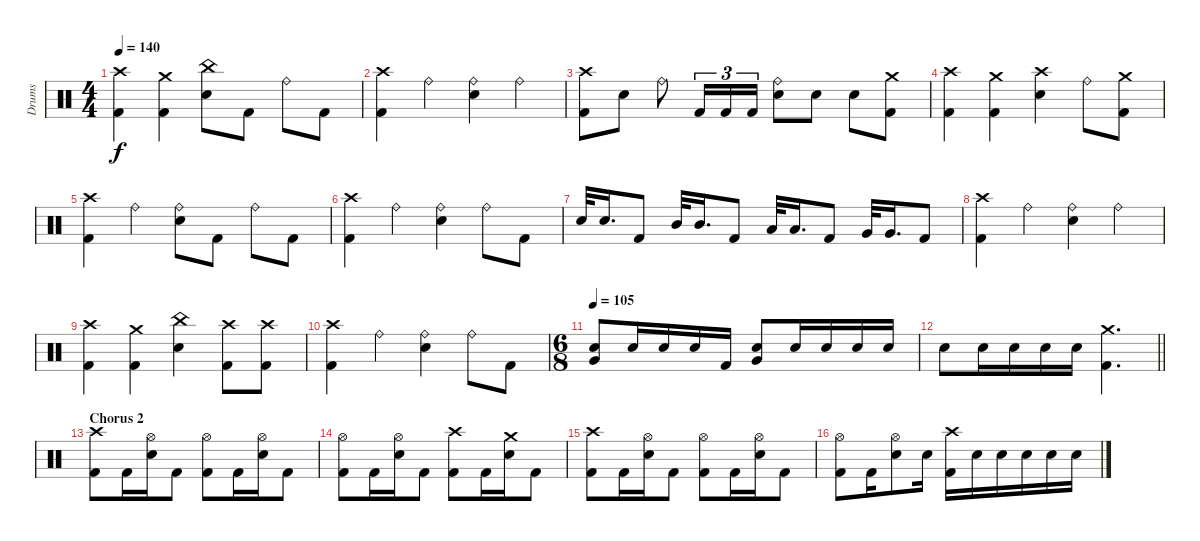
\track ("Drums" "Drums") {instrument percussion}
\staff {score}
\articulation defaults
\ts (4 4)
\tempo 140
\clef neutral
\ks c
("Crash high (hit)" "Kick (hit) 2").4{dy f} ("Crash medium (hit)" "Kick (hit) 2").4 ("China (hit)" "Electric Snare (hit)").8 "Kick (hit) 2".8 "Ride (bell)".8 "Kick (hit) 2".8 |
("Crash high (hit)" "Kick (hit) 2").4 "Ride (bell)".4 ("Ride (bell)" "Electric Snare (hit)").4 "Ride (bell)".4 |
("Crash high (hit)" "Kick (hit) 2").8 "Electric Snare (hit)".8 "Ride (bell)".8 "Kick (hit) 2".16{tu (3 2)} "Kick (hit) 2".16{tu (3 2)} "Kick (hit) 2".16{tu (3 2)} ("Ride (bell)" "Electric Snare (hit)").8 "Electric Snare (hit)".8 "Electric Snare (hit)".8 ("Crash medium (hit)" "Kick (hit) 2").8 |
("Crash high (hit)" "Kick (hit) 2").4 ("Crash medium (hit)" "Kick (hit) 2").4 ("Crash high (hit)" "Electric Snare (hit)").4 "Ride (bell)".8 ("Crash medium (hit)" "Kick (hit) 2").8 |
("Crash high (hit)" "Kick (hit) 2").4 "Ride (bell)".4 ("Ride (bell)" "Electric Snare (hit)").8 "Kick (hit) 2".8 "Ride (bell)".8 "Kick (hit) 2".8 |
("Crash high (hit)" "Kick (hit) 2").4 "Ride (bell)".4 ("Ride (bell)" "Electric Snare (hit)").4 "Ride (bell)".8 "Kick (hit) 2".8 |
"Electric Snare (hit)".32 "Electric Snare (hit)".16{d} "Kick (hit) 2".8 "Mid Tom (hit)".32 "Mid Tom (hit)".16{d} "Kick (hit) 2".8 "Low Tom (hit)".32 "Low Tom (hit)".16{d} "Kick (hit) 2".8 "Very Low Tom (hit)".32 "Very Low Tom (hit)".16{d} "Kick (hit) 2".8 |
("Crash high (hit)" "Kick (hit) 2").4 "Ride (bell)".4 ("Ride (bell)" "Electric Snare (hit)").4 "Ride (bell)".4 |
("Crash high (hit)" "Kick (hit) 2").4 ("Crash medium (hit)" "Kick (hit) 2").4 ("China (hit)" "Electric Snare (hit)").4 ("Crash high (hit)" "Kick (hit) 2").8 ("Crash high (hit)" "Kick (hit) 2").8 |
("Crash high (hit)" "Kick (hit) 2").4 "Ride (bell)".4 ("Ride (bell)" "Electric Snare (hit)").4 "Ride (bell)".8 "Kick (hit) 2".8 |
\ts (6 8)
\tempo 105
("Very Low Tom (hit)" "Electric Snare (hit)").8 "Electric Snare (hit)".16 "Electric Snare (hit)".16 "Electric Snare (hit)".16 "Kick (hit) 2".16 ("Very Low Tom (hit)" "Electric Snare (hit)").8 "Electric Snare (hit)".16 "Electric Snare (hit)".16 "Electric Snare (hit)".16 "Electric Snare (hit)".16 |
\barLineRight lightlight "Electric Snare (hit)".8 "Electric Snare (hit)".16 "Electric Snare (hit)".16 "Electric Snare (hit)".16 "Electric Snare (hit)".16
("Crash medium (hit)" "Kick (hit) 2").4{d} |
\section ("" "Chorus 2")
("Crash high (hit)" "Kick (hit) 2").8 "Kick (hit) 2".16 ("Hi-Hat (open)" "Electric Snare (hit)").16 "Kick (hit) 2".8 ("Hi-Hat (open)" "Kick (hit) 2").8 "Kick (hit) 2".16 ("Hi-Hat (open)" "Electric Snare (hit)").16 "Kick (hit) 2".8 |
("Hi-Hat (open)" "Kick (hit) 2").8 "Kick (hit) 2".16 ("Hi-Hat (open)" "Electric Snare (hit)").16 "Kick (hit) 2".8 ("Crash high (hit)" "Kick (hit) 2").8 "Kick (hit) 2".16 ("Crash medium (hit)" "Electric Snare (hit)").16 "Kick (hit) 2".8 |
("Crash high (hit)" "Kick (hit) 2").8 "Kick (hit) 2".16 ("Hi-Hat (open)" "Electric Snare (hit)").16 "Kick (hit) 2".8 ("Hi-Hat (open)" "Kick (hit) 2").8 "Kick (hit) 2".16 ("Hi-Hat (open)" "Electric Snare (hit)").16 "Kick (hit) 2".8 |
("Hi-Hat (open)" "Kick (hit) 2").8 "Kick (hit) 2".16 ("Hi-Hat (open)" "Electric Snare (hit)").8 "Electric Snare (hit)".16 ("Crash high (hit)" "Kick (hit) 2").16 "Electric Snare (hit)".16 "Electric Snare (hit)".16 "Electric Snare (hit)".16 "Electric Snare (hit)".16 "Electric Snare (hit)".16
